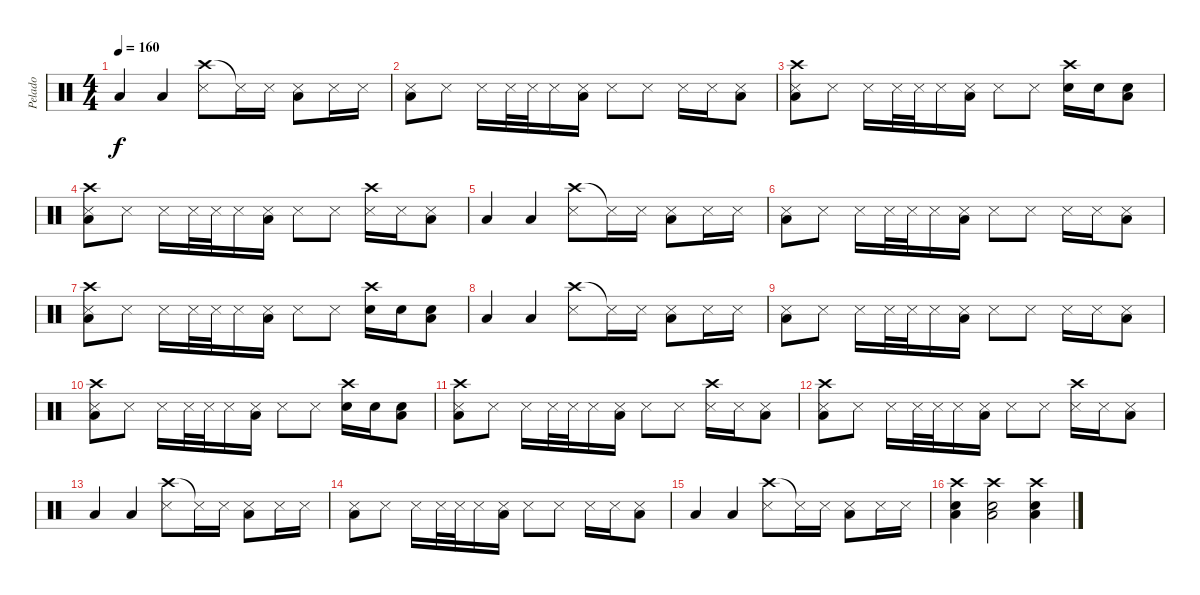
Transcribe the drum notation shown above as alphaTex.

\track ("Pelado" "Pelado") {instrument percussion}
\staff {score}
\articulation defaults
\ts (4 4)
\tempo 160
\clef neutral
\ks c "Low Tom (hit)".4{dy f} "Low Tom (hit)".4
("Crash high (hit)" "Snare (side stick) 3").8 "Snare (side stick) 3"{t}.16 "Snare (side stick) 3".16 ("Snare (side stick) 3" "Low Tom (hit)").8 "Snare (side stick) 3".16 "Snare (side stick) 3".16 |
("Snare (side stick) 3" "Low Tom (hit)").8 "Snare (side stick) 3".8 "Snare (side stick) 3".16 "Snare (side stick) 3".32 "Snare (side stick) 3".32 "Snare (side stick) 3".16 ("Snare (side stick) 3" "Low Tom (hit)").16 "Snare (side stick) 3".8 "Snare (side stick) 3".8 "Snare (side stick) 3".16 "Snare (side stick) 3".16 ("Snare (side stick) 3" "Low Tom (hit)").8 |
("Crash high (hit)" "Snare (side stick) 3" "Low Tom (hit)").8 "Snare (side stick) 3".8 "Snare (side stick) 3".16 "Snare (side stick) 3".32 "Snare (side stick) 3".32 "Snare (side stick) 3".16 ("Snare (side stick) 3" "Low Tom (hit)").16 "Snare (side stick) 3".8 "Snare (side stick) 3".8 ("Crash high (hit)" "Snare (hit) 2").16 "Snare (hit) 2".16 ("Snare (hit) 2" "Low Tom (hit)").8 |
("Crash high (hit)" "Snare (side stick) 3" "Low Tom (hit)").8 "Snare (side stick) 3".8 "Snare (side stick) 3".16 "Snare (side stick) 3".32 "Snare (side stick) 3".32 "Snare (side stick) 3".16 ("Snare (side stick) 3" "Low Tom (hit)").16 "Snare (side stick) 3".8 "Snare (side stick) 3".8 ("Crash high (hit)" "Snare (side stick) 3").16 "Snare (side stick) 3".16 ("Snare (side stick) 3" "Low Tom (hit)").8 |
"Low Tom (hit)".4 "Low Tom (hit)".4 ("Crash high (hit)" "Snare (side stick) 3").8 "Snare (side stick) 3"{t}.16 "Snare (side stick) 3".16 ("Snare (side stick) 3" "Low Tom (hit)").8 "Snare (side stick) 3".16 "Snare (side stick) 3".16 |
("Snare (side stick) 3" "Low Tom (hit)").8 "Snare (side stick) 3".8 "Snare (side stick) 3".16 "Snare (side stick) 3".32 "Snare (side stick) 3".32 "Snare (side stick) 3".16 ("Snare (side stick) 3" "Low Tom (hit)").16 "Snare (side stick) 3".8 "Snare (side stick) 3".8 "Snare (side stick) 3".16 "Snare (side stick) 3".16 ("Snare (side stick) 3" "Low Tom (hit)").8 |
("Crash high (hit)" "Snare (side stick) 3" "Low Tom (hit)").8 "Snare (side stick) 3".8 "Snare (side stick) 3".16 "Snare (side stick) 3".32 "Snare (side stick) 3".32 "Snare (side stick) 3".16 ("Snare (side stick) 3" "Low Tom (hit)").16 "Snare (side stick) 3".8 "Snare (side stick) 3".8 ("Crash high (hit)" "Snare (hit) 2").16 "Snare (hit) 2".16 ("Snare (hit) 2" "Low Tom (hit)").8 |
"Low Tom (hit)".4 "Low Tom (hit)".4 ("Crash high (hit)" "Snare (side stick) 3").8 "Snare (side stick) 3"{t}.16 "Snare (side stick) 3".16 ("Snare (side stick) 3" "Low Tom (hit)").8 "Snare (side stick) 3".16 "Snare (side stick) 3".16 |
("Snare (side stick) 3" "Low Tom (hit)").8 "Snare (side stick) 3".8 "Snare (side stick) 3".16 "Snare (side stick) 3".32 "Snare (side stick) 3".32 "Snare (side stick) 3".16 ("Snare (side stick) 3" "Low Tom (hit)").16 "Snare (side stick) 3".8 "Snare (side stick) 3".8 "Snare (side stick) 3".16 "Snare (side stick) 3".16 ("Snare (side stick) 3" "Low Tom (hit)").8 |
("Crash high (hit)" "Snare (side stick) 3" "Low Tom (hit)").8 "Snare (side stick) 3".8 "Snare (side stick) 3".16 "Snare (side stick) 3".32 "Snare (side stick) 3".32 "Snare (side stick) 3".16 ("Snare (side stick) 3" "Low Tom (hit)").16 "Snare (side stick) 3".8 "Snare (side stick) 3".8 ("Crash high (hit)" "Snare (hit) 2").16 "Snare (hit) 2".16 ("Snare (hit) 2" "Low Tom (hit)").8 |
("Crash high (hit)" "Snare (side stick) 3" "Low Tom (hit)").8 "Snare (side stick) 3".8 "Snare (side stick) 3".16 "Snare (side stick) 3".32 "Snare (side stick) 3".32 "Snare (side stick) 3".16 ("Snare (side stick) 3" "Low Tom (hit)").16 "Snare (side stick) 3".8 "Snare (side stick) 3".8 ("Crash high (hit)" "Snare (side stick) 3").16 "Snare (side stick) 3".16 ("Snare (side stick) 3" "Low Tom (hit)").8 |
("Crash high (hit)" "Snare (side stick) 3" "Low Tom (hit)").8 "Snare (side stick) 3".8 "Snare (side stick) 3".16 "Snare (side stick) 3".32 "Snare (side stick) 3".32 "Snare (side stick) 3".16 ("Snare (side stick) 3" "Low Tom (hit)").16 "Snare (side stick) 3".8 "Snare (side stick) 3".8 ("Crash high (hit)" "Snare (side stick) 3").16 "Snare (side stick) 3".16 ("Snare (side stick) 3" "Low Tom (hit)").8 |
"Low Tom (hit)".4 "Low Tom (hit)".4 ("Crash high (hit)" "Snare (side stick) 3").8 "Snare (side stick) 3"{t}.16 "Snare (side stick) 3".16 ("Snare (side stick) 3" "Low Tom (hit)").8 "Snare (side stick) 3".16 "Snare (side stick) 3".16 |
("Snare (side stick) 3" "Low Tom (hit)").8 "Snare (side stick) 3".8 "Snare (side stick) 3".16 "Snare (side stick) 3".32 "Snare (side stick) 3".32 "Snare (side stick) 3".16 ("Snare (side stick) 3" "Low Tom (hit)").16 "Snare (side stick) 3".8 "Snare (side stick) 3".8 "Snare (side stick) 3".16 "Snare (side stick) 3".16 ("Snare (side stick) 3" "Low Tom (hit)").8 |
"Low Tom (hit)".4 "Low Tom (hit)".4 ("Crash high (hit)" "Snare (side stick) 3").8 "Snare (side stick) 3"{t}.16 "Snare (side stick) 3".16 ("Snare (side stick) 3" "Low Tom (hit)").8 "Snare (side stick) 3".16 "Snare (side stick) 3".16 |
("Crash high (hit)" "Snare (hit) 2" "Low Tom (hit)").4 ("Crash high (hit)" "Snare (hit) 2" "Low Tom (hit)").2 ("Crash high (hit)" "Snare (hit) 2" "Low Tom (hit)").4
